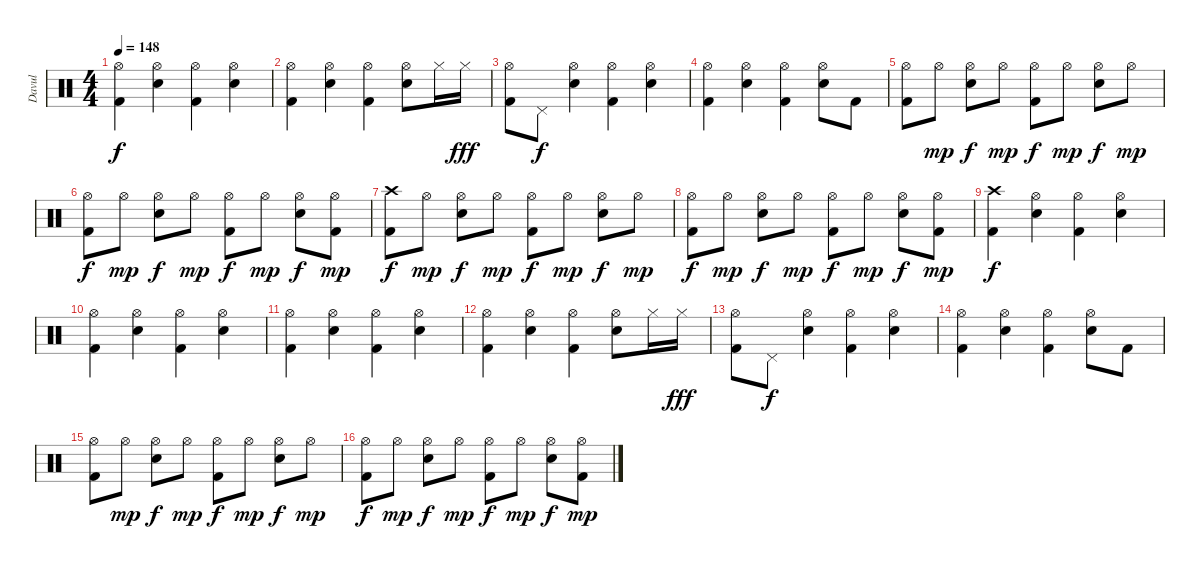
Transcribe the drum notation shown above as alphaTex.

\track ("Davul" "Davul") {instrument percussion}
\staff {score}
\articulation defaults
\ts (4 4)
\tempo 148
\clef neutral
\ks c
("Hi-Hat (open)" "Kick (hit) 2").4{dy f} ("Hi-Hat (open)" "Electric Snare (hit)").4 ("Hi-Hat (open)" "Kick (hit) 2").4 ("Hi-Hat (open)" "Electric Snare (hit)").4 |
("Hi-Hat (open)" "Kick (hit) 2").4 ("Hi-Hat (open)" "Electric Snare (hit)").4 ("Hi-Hat (open)" "Kick (hit) 2").4 ("Hi-Hat (open)" "Electric Snare (hit)").8 "Hi-Hat (closed)".16 "Hi-Hat (closed)".16{dy fff} |
("Hi-Hat (open)" "Kick (hit) 2").8 "Pedal Hi-Hat (hit)".8{dy f} ("Hi-Hat (open)" "Electric Snare (hit)").4 ("Hi-Hat (open)" "Kick (hit) 2").4 ("Hi-Hat (open)" "Electric Snare (hit)").4 |
("Hi-Hat (open)" "Kick (hit) 2").4 ("Hi-Hat (open)" "Electric Snare (hit)").4 ("Hi-Hat (open)" "Kick (hit) 2").4 ("Hi-Hat (open)" "Electric Snare (hit)").8 "Kick (hit) 2".8 |
("Hi-Hat (open)" "Kick (hit) 2").8 "Hi-Hat (open)".8{dy mp} ("Hi-Hat (open)" "Electric Snare (hit)").8{dy f} "Hi-Hat (open)".8{dy mp} ("Hi-Hat (open)" "Kick (hit) 2").8{dy f} "Hi-Hat (open)".8{dy mp} ("Hi-Hat (open)" "Electric Snare (hit)").8{dy f} "Hi-Hat (open)".8{dy mp} |
("Hi-Hat (open)" "Kick (hit) 2").8{dy f} "Hi-Hat (open)".8{dy mp} ("Hi-Hat (open)" "Electric Snare (hit)").8{dy f} "Hi-Hat (open)".8{dy mp} ("Hi-Hat (open)" "Kick (hit) 2").8{dy f} "Hi-Hat (open)".8{dy mp} ("Hi-Hat (open)" "Electric Snare (hit)").8{dy f} ("Hi-Hat (open)" "Kick (hit) 2").8{dy mp} |
("Crash high (hit)" "Kick (hit) 2").8{dy f} "Hi-Hat (open)".8{dy mp} ("Hi-Hat (open)" "Electric Snare (hit)").8{dy f} "Hi-Hat (open)".8{dy mp} ("Hi-Hat (open)" "Kick (hit) 2").8{dy f} "Hi-Hat (open)".8{dy mp} ("Hi-Hat (open)" "Electric Snare (hit)").8{dy f} "Hi-Hat (open)".8{dy mp} |
("Hi-Hat (open)" "Kick (hit) 2").8{dy f} "Hi-Hat (open)".8{dy mp} ("Hi-Hat (open)" "Electric Snare (hit)").8{dy f} "Hi-Hat (open)".8{dy mp} ("Hi-Hat (open)" "Kick (hit) 2").8{dy f} "Hi-Hat (open)".8{dy mp} ("Hi-Hat (open)" "Electric Snare (hit)").8{dy f} ("Hi-Hat (open)" "Kick (hit) 2").8{dy mp} |
("Crash high (hit)" "Kick (hit) 2").4{dy f} ("Hi-Hat (open)" "Electric Snare (hit)").4 ("Hi-Hat (open)" "Kick (hit) 2").4 ("Hi-Hat (open)" "Electric Snare (hit)").4 |
("Hi-Hat (open)" "Kick (hit) 2").4 ("Hi-Hat (open)" "Electric Snare (hit)").4 ("Hi-Hat (open)" "Kick (hit) 2").4 ("Hi-Hat (open)" "Electric Snare (hit)").4 |
("Hi-Hat (open)" "Kick (hit) 2").4 ("Hi-Hat (open)" "Electric Snare (hit)").4 ("Hi-Hat (open)" "Kick (hit) 2").4 ("Hi-Hat (open)" "Electric Snare (hit)").4 |
("Hi-Hat (open)" "Kick (hit) 2").4 ("Hi-Hat (open)" "Electric Snare (hit)").4 ("Hi-Hat (open)" "Kick (hit) 2").4 ("Hi-Hat (open)" "Electric Snare (hit)").8 "Hi-Hat (closed)".16 "Hi-Hat (closed)".16{dy fff} |
("Hi-Hat (open)" "Kick (hit) 2").8 "Pedal Hi-Hat (hit)".8{dy f} ("Hi-Hat (open)" "Electric Snare (hit)").4 ("Hi-Hat (open)" "Kick (hit) 2").4 ("Hi-Hat (open)" "Electric Snare (hit)").4 |
("Hi-Hat (open)" "Kick (hit) 2").4 ("Hi-Hat (open)" "Electric Snare (hit)").4 ("Hi-Hat (open)" "Kick (hit) 2").4 ("Hi-Hat (open)" "Electric Snare (hit)").8 "Kick (hit) 2".8 |
("Hi-Hat (open)" "Kick (hit) 2").8 "Hi-Hat (open)".8{dy mp} ("Hi-Hat (open)" "Electric Snare (hit)").8{dy f} "Hi-Hat (open)".8{dy mp} ("Hi-Hat (open)" "Kick (hit) 2").8{dy f} "Hi-Hat (open)".8{dy mp} ("Hi-Hat (open)" "Electric Snare (hit)").8{dy f} "Hi-Hat (open)".8{dy mp} |
("Hi-Hat (open)" "Kick (hit) 2").8{dy f} "Hi-Hat (open)".8{dy mp} ("Hi-Hat (open)" "Electric Snare (hit)").8{dy f} "Hi-Hat (open)".8{dy mp} ("Hi-Hat (open)" "Kick (hit) 2").8{dy f} "Hi-Hat (open)".8{dy mp} ("Hi-Hat (open)" "Electric Snare (hit)").8{dy f} ("Hi-Hat (open)" "Kick (hit) 2").8{dy mp}
